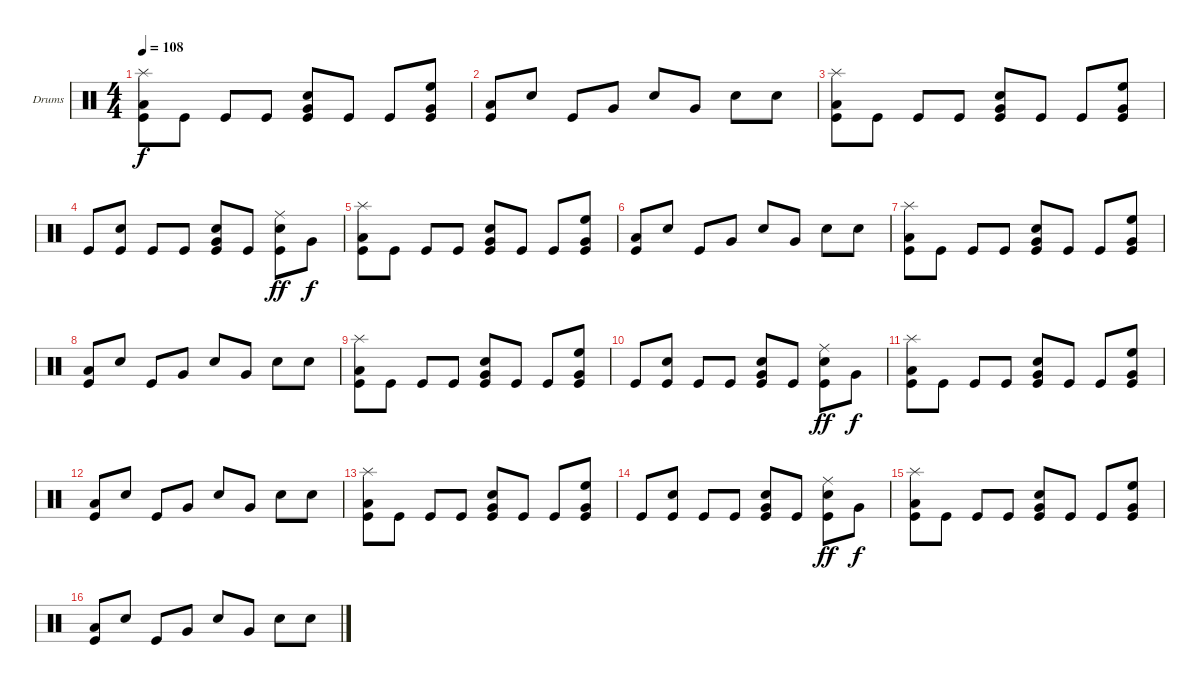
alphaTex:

\bracketExtendMode groupsimilarinstruments
\firstSystemTrackNameOrientation horizontal
\otherSystemsTrackNameOrientation horizontal
\track ("Drumkit" "Drums") {instrument percussion}
\staff {score}
\articulation defaults
\ts (4 4)
\tempo 108
\clef neutral
\ks c
("Low Tom (hit)" "Kick (hit)" "Splash (hit)").8{dy f} "Kick (hit)".8 "Kick (hit)".8 "Kick (hit)".8 ("Snare (hit) 2" "Very Low Tom (hit)" "Kick (hit)").8 "Kick (hit)".8 "Kick (hit)".8 ("Kick (hit)" "Very Low Tom (hit)" "High Floor Tom (hit)").8 |
("Kick (hit)" "Low Tom (hit)").8 "Snare (hit) 2".8 "Kick (hit)".8 "Very Low Tom (hit)".8 "Snare (hit) 2".8 "Very Low Tom (hit)".8 "Snare (hit) 2".8 "Snare (hit) 2".8 |
("Low Tom (hit)" "Kick (hit)" "Splash (hit)").8 "Kick (hit)".8 "Kick (hit)".8 "Kick (hit)".8 ("Snare (hit) 2" "Very Low Tom (hit)" "Kick (hit)").8 "Kick (hit)".8 "Kick (hit)".8 ("Kick (hit)" "Very Low Tom (hit)" "High Floor Tom (hit)").8 |
"Kick (hit)".8 ("Kick (hit)" "Snare (hit) 2").8 "Kick (hit)".8 "Kick (hit)".8 ("Snare (hit) 2" "Very Low Tom (hit)" "Kick (hit)").8 "Kick (hit)".8 ("Snare (hit) 2" "Kick (hit)" "Ride (middle)").8{dy ff} "Very Low Tom (hit)".8{dy f} |
("Low Tom (hit)" "Kick (hit)" "Splash (hit)").8 "Kick (hit)".8 "Kick (hit)".8 "Kick (hit)".8 ("Snare (hit) 2" "Very Low Tom (hit)" "Kick (hit)").8 "Kick (hit)".8 "Kick (hit)".8 ("Kick (hit)" "Very Low Tom (hit)" "High Floor Tom (hit)").8 |
("Kick (hit)" "Low Tom (hit)").8 "Snare (hit) 2".8 "Kick (hit)".8 "Very Low Tom (hit)".8 "Snare (hit) 2".8 "Very Low Tom (hit)".8 "Snare (hit) 2".8 "Snare (hit) 2".8 |
("Low Tom (hit)" "Kick (hit)" "Splash (hit)").8 "Kick (hit)".8 "Kick (hit)".8 "Kick (hit)".8 ("Snare (hit) 2" "Very Low Tom (hit)" "Kick (hit)").8 "Kick (hit)".8 "Kick (hit)".8 ("Kick (hit)" "Very Low Tom (hit)" "High Floor Tom (hit)").8 |
("Kick (hit)" "Low Tom (hit)").8 "Snare (hit) 2".8 "Kick (hit)".8 "Very Low Tom (hit)".8 "Snare (hit) 2".8 "Very Low Tom (hit)".8 "Snare (hit) 2".8 "Snare (hit) 2".8 |
("Low Tom (hit)" "Kick (hit)" "Splash (hit)").8 "Kick (hit)".8 "Kick (hit)".8 "Kick (hit)".8 ("Snare (hit) 2" "Very Low Tom (hit)" "Kick (hit)").8 "Kick (hit)".8 "Kick (hit)".8 ("Kick (hit)" "Very Low Tom (hit)" "High Floor Tom (hit)").8 |
"Kick (hit)".8 ("Kick (hit)" "Snare (hit) 2").8 "Kick (hit)".8 "Kick (hit)".8 ("Snare (hit) 2" "Very Low Tom (hit)" "Kick (hit)").8 "Kick (hit)".8 ("Snare (hit) 2" "Kick (hit)" "Ride (middle)").8{dy ff} "Very Low Tom (hit)".8{dy f} |
("Low Tom (hit)" "Kick (hit)" "Splash (hit)").8 "Kick (hit)".8 "Kick (hit)".8 "Kick (hit)".8 ("Snare (hit) 2" "Very Low Tom (hit)" "Kick (hit)").8 "Kick (hit)".8 "Kick (hit)".8 ("Kick (hit)" "Very Low Tom (hit)" "High Floor Tom (hit)").8 |
("Kick (hit)" "Low Tom (hit)").8 "Snare (hit) 2".8 "Kick (hit)".8 "Very Low Tom (hit)".8 "Snare (hit) 2".8 "Very Low Tom (hit)".8 "Snare (hit) 2".8 "Snare (hit) 2".8 |
("Low Tom (hit)" "Kick (hit)" "Splash (hit)").8 "Kick (hit)".8 "Kick (hit)".8 "Kick (hit)".8 ("Snare (hit) 2" "Very Low Tom (hit)" "Kick (hit)").8 "Kick (hit)".8 "Kick (hit)".8 ("Kick (hit)" "Very Low Tom (hit)" "High Floor Tom (hit)").8 |
"Kick (hit)".8 ("Kick (hit)" "Snare (hit) 2").8 "Kick (hit)".8 "Kick (hit)".8 ("Snare (hit) 2" "Very Low Tom (hit)" "Kick (hit)").8 "Kick (hit)".8 ("Snare (hit) 2" "Kick (hit)" "Ride (middle)").8{dy ff} "Very Low Tom (hit)".8{dy f} |
("Low Tom (hit)" "Kick (hit)" "Splash (hit)").8 "Kick (hit)".8 "Kick (hit)".8 "Kick (hit)".8 ("Snare (hit) 2" "Very Low Tom (hit)" "Kick (hit)").8 "Kick (hit)".8 "Kick (hit)".8 ("Kick (hit)" "Very Low Tom (hit)" "High Floor Tom (hit)").8 |
("Kick (hit)" "Low Tom (hit)").8 "Snare (hit) 2".8 "Kick (hit)".8 "Very Low Tom (hit)".8 "Snare (hit) 2".8 "Very Low Tom (hit)".8 "Snare (hit) 2".8 "Snare (hit) 2".8
